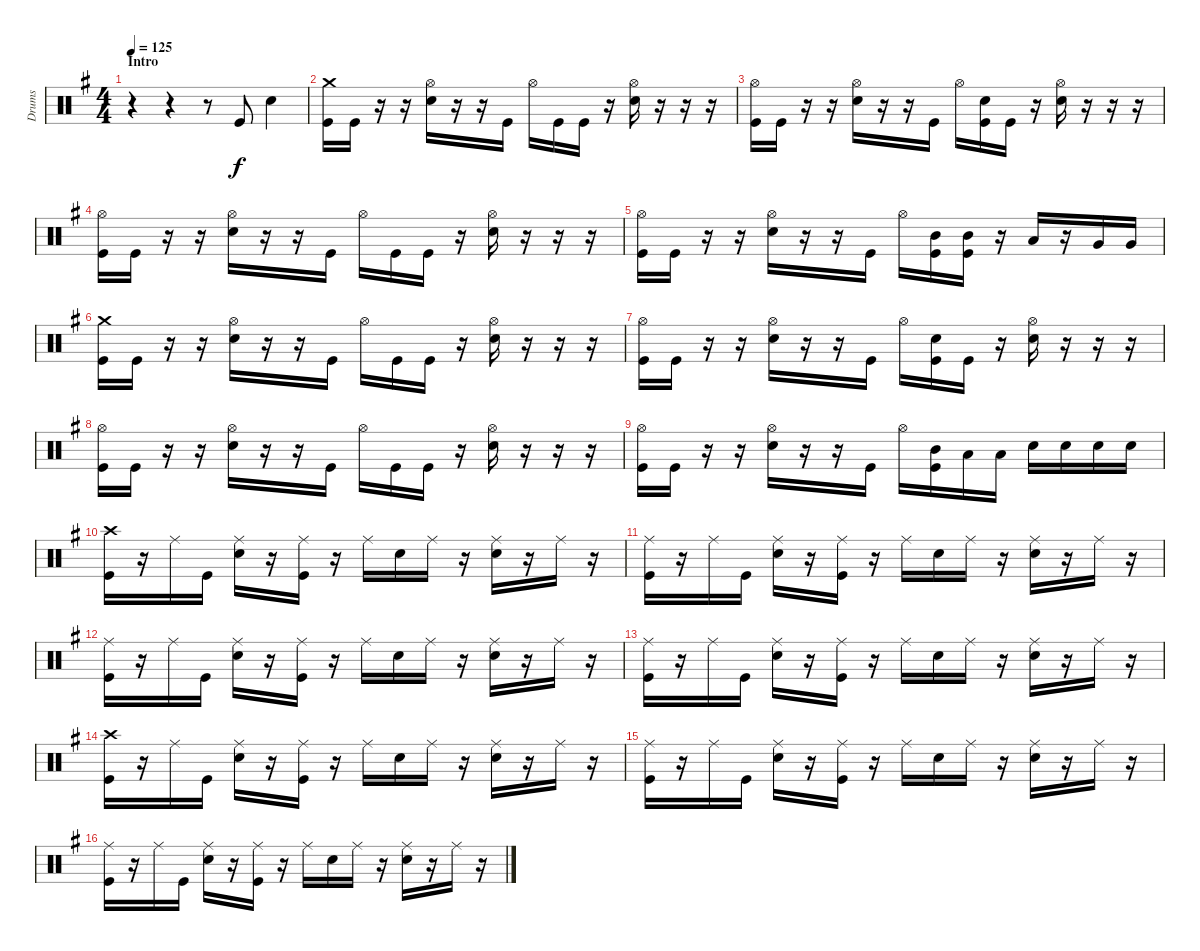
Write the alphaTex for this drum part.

\track ("Drums" "Drums") {instrument percussion}
\staff {score}
\articulation defaults
\ts (4 4)
\section ("" "Intro")
\tempo 125
\clef neutral
\ks eminor
r.4{dy f} r.4 r.8 "Kick (hit)".8 "Electric Snare (hit)".4 |
("Crash medium (hit)" "Kick (hit)").16 "Kick (hit)".16 r.16 r.16 ("Hi-Hat (open)" "Electric Snare (hit)").16 r.16 r.16 "Kick (hit)".16 "Hi-Hat (open)".16 "Kick (hit)".16 "Kick (hit)".16 r.16 ("Hi-Hat (open)" "Electric Snare (hit)").16 r.16 r.16 r.16 |
("Hi-Hat (open)" "Kick (hit)").16 "Kick (hit)".16 r.16 r.16 ("Hi-Hat (open)" "Electric Snare (hit)").16 r.16 r.16 "Kick (hit)".16 "Hi-Hat (open)".16 ("Electric Snare (hit)" "Kick (hit)").16 "Kick (hit)".16 r.16 ("Hi-Hat (open)" "Electric Snare (hit)").16 r.16 r.16 r.16 |
("Hi-Hat (open)" "Kick (hit)").16 "Kick (hit)".16 r.16 r.16 ("Hi-Hat (open)" "Electric Snare (hit)").16 r.16 r.16 "Kick (hit)".16 "Hi-Hat (open)".16 "Kick (hit)".16 "Kick (hit)".16 r.16 ("Hi-Hat (open)" "Electric Snare (hit)").16 r.16 r.16 r.16 |
("Hi-Hat (open)" "Kick (hit)").16 "Kick (hit)".16 r.16 r.16 ("Hi-Hat (open)" "Electric Snare (hit)").16 r.16 r.16 "Kick (hit)".16 "Hi-Hat (open)".16 ("Mid Tom (hit)" "Kick (hit)").16 ("Mid Tom (hit)" "Kick (hit)").16 r.16 "Low Tom (hit)".16 r.16 "Very Low Tom (hit)".16 "Very Low Tom (hit)".16 |
("Crash medium (hit)" "Kick (hit)").16 "Kick (hit)".16 r.16 r.16 ("Hi-Hat (open)" "Electric Snare (hit)").16 r.16 r.16 "Kick (hit)".16 "Hi-Hat (open)".16 "Kick (hit)".16 "Kick (hit)".16 r.16 ("Hi-Hat (open)" "Electric Snare (hit)").16 r.16 r.16 r.16 |
("Hi-Hat (open)" "Kick (hit)").16 "Kick (hit)".16 r.16 r.16 ("Hi-Hat (open)" "Electric Snare (hit)").16 r.16 r.16 "Kick (hit)".16 "Hi-Hat (open)".16 ("Electric Snare (hit)" "Kick (hit)").16 "Kick (hit)".16 r.16 ("Hi-Hat (open)" "Electric Snare (hit)").16 r.16 r.16 r.16 |
("Hi-Hat (open)" "Kick (hit)").16 "Kick (hit)".16 r.16 r.16 ("Hi-Hat (open)" "Electric Snare (hit)").16 r.16 r.16 "Kick (hit)".16 "Hi-Hat (open)".16 "Kick (hit)".16 "Kick (hit)".16 r.16 ("Hi-Hat (open)" "Electric Snare (hit)").16 r.16 r.16 r.16 |
("Hi-Hat (open)" "Kick (hit)").16 "Kick (hit)".16 r.16 r.16 ("Hi-Hat (open)" "Electric Snare (hit)").16 r.16 r.16 "Kick (hit)".16 "Hi-Hat (open)".16 ("Mid Tom (hit)" "Kick (hit)").16 "Low Tom (hit)".16 "Low Tom (hit)".16 "Electric Snare (hit)".16 "Electric Snare (hit)".16 "Electric Snare (hit)".16 "Electric Snare (hit)".16 |
("Crash high (hit)" "Kick (hit)").16 r.16 "Ride (middle)".16 "Kick (hit)".16 ("Ride (middle)" "Electric Snare (hit)").16 r.16 ("Ride (middle)" "Kick (hit)").16 r.16 "Ride (middle)".16 "Electric Snare (hit)".16 "Ride (middle)".16 r.16 ("Ride (middle)" "Electric Snare (hit)").16 r.16 "Ride (middle)".16 r.16 |
("Ride (middle)" "Kick (hit)").16 r.16 "Ride (middle)".16 "Kick (hit)".16 ("Ride (middle)" "Electric Snare (hit)").16 r.16 ("Ride (middle)" "Kick (hit)").16 r.16 "Ride (middle)".16 "Electric Snare (hit)".16 "Ride (middle)".16 r.16 ("Ride (middle)" "Electric Snare (hit)").16 r.16 "Ride (middle)".16 r.16 |
("Ride (middle)" "Kick (hit)").16 r.16 "Ride (middle)".16 "Kick (hit)".16 ("Ride (middle)" "Electric Snare (hit)").16 r.16 ("Ride (middle)" "Kick (hit)").16 r.16 "Ride (middle)".16 "Electric Snare (hit)".16 "Ride (middle)".16 r.16 ("Ride (middle)" "Electric Snare (hit)").16 r.16 "Ride (middle)".16 r.16 |
("Ride (middle)" "Kick (hit)").16 r.16 "Ride (middle)".16 "Kick (hit)".16 ("Ride (middle)" "Electric Snare (hit)").16 r.16 ("Ride (middle)" "Kick (hit)").16 r.16 "Ride (middle)".16 "Electric Snare (hit)".16 "Ride (middle)".16 r.16 ("Ride (middle)" "Electric Snare (hit)").16 r.16 "Ride (middle)".16 r.16 |
("Crash high (hit)" "Kick (hit)").16 r.16 "Ride (middle)".16 "Kick (hit)".16 ("Ride (middle)" "Electric Snare (hit)").16 r.16 ("Ride (middle)" "Kick (hit)").16 r.16 "Ride (middle)".16 "Electric Snare (hit)".16 "Ride (middle)".16 r.16 ("Ride (middle)" "Electric Snare (hit)").16 r.16 "Ride (middle)".16 r.16 |
("Ride (middle)" "Kick (hit)").16 r.16 "Ride (middle)".16 "Kick (hit)".16 ("Ride (middle)" "Electric Snare (hit)").16 r.16 ("Ride (middle)" "Kick (hit)").16 r.16 "Ride (middle)".16 "Electric Snare (hit)".16 "Ride (middle)".16 r.16 ("Ride (middle)" "Electric Snare (hit)").16 r.16 "Ride (middle)".16 r.16 |
("Ride (middle)" "Kick (hit)").16 r.16 "Ride (middle)".16 "Kick (hit)".16 ("Ride (middle)" "Electric Snare (hit)").16 r.16 ("Ride (middle)" "Kick (hit)").16 r.16 "Ride (middle)".16 "Electric Snare (hit)".16 "Ride (middle)".16 r.16 ("Ride (middle)" "Electric Snare (hit)").16 r.16 "Ride (middle)".16 r.16
